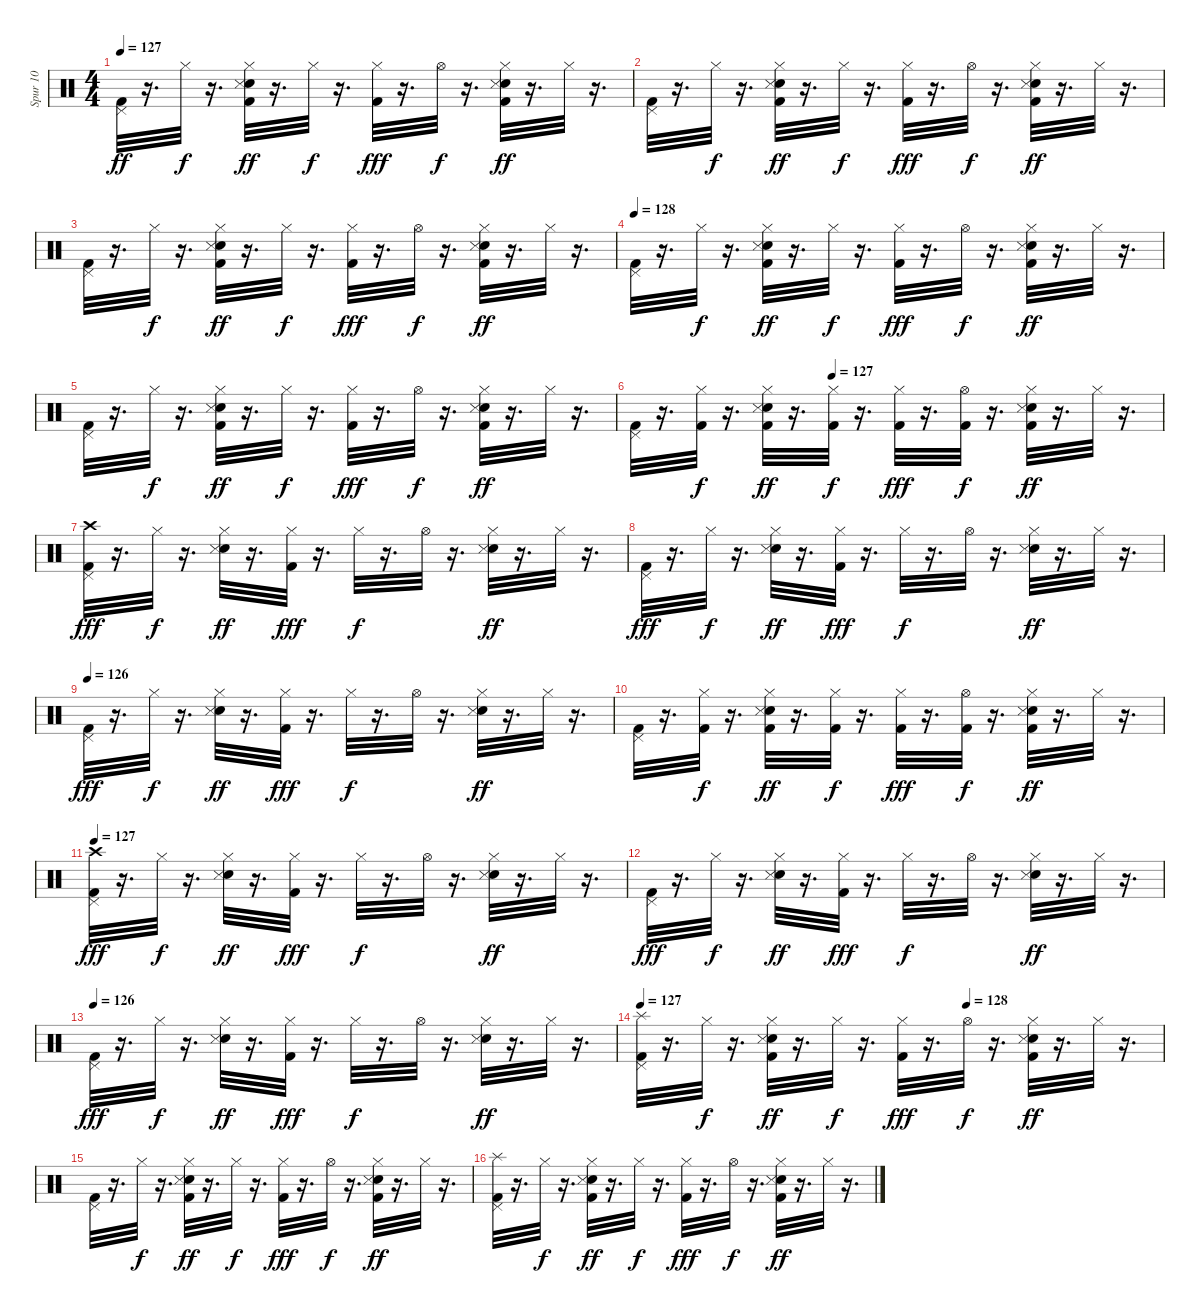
\track ("Spur 10" "Spur 10") {instrument percussion}
\staff {score}
\articulation defaults
\ts (4 4)
\tempo 127
\clef neutral
\ks c
("Kick (hit) 2" "Pedal Hi-Hat (hit)").32{dy ff} r.16{d} "Hi-Hat (closed)".32{dy f} r.16{d} ("Snare (hit) 2" "Kick (hit) 2" "Hi-Hat (closed)" "Snare (side stick) 3").32{dy ff} r.16{d} "Hi-Hat (closed)".32{dy f} r.16{d} ("Kick (hit) 2" "Hi-Hat (closed)").32{dy fff} r.16{d} "Hi-Hat (open)".32{dy f} r.16{d} ("Snare (hit) 2" "Kick (hit) 2" "Hi-Hat (closed)" "Snare (side stick) 3").32{dy ff} r.16{d} "Hi-Hat (closed)".32 r.16{d} |
("Kick (hit) 2" "Pedal Hi-Hat (hit)").32 r.16{d} "Hi-Hat (closed)".32{dy f} r.16{d} ("Snare (hit) 2" "Kick (hit) 2" "Hi-Hat (closed)" "Snare (side stick) 3").32{dy ff} r.16{d} "Hi-Hat (closed)".32{dy f} r.16{d} ("Kick (hit) 2" "Hi-Hat (closed)").32{dy fff} r.16{d} "Hi-Hat (open)".32{dy f} r.16{d} ("Snare (hit) 2" "Kick (hit) 2" "Hi-Hat (closed)" "Snare (side stick) 3").32{dy ff} r.16{d} "Hi-Hat (closed)".32 r.16{d} |
("Kick (hit) 2" "Pedal Hi-Hat (hit)").32 r.16{d} "Hi-Hat (closed)".32{dy f} r.16{d} ("Snare (hit) 2" "Kick (hit) 2" "Hi-Hat (closed)" "Snare (side stick) 3").32{dy ff} r.16{d} "Hi-Hat (closed)".32{dy f} r.16{d} ("Kick (hit) 2" "Hi-Hat (closed)").32{dy fff} r.16{d} "Hi-Hat (open)".32{dy f} r.16{d} ("Snare (hit) 2" "Kick (hit) 2" "Hi-Hat (closed)" "Snare (side stick) 3").32{dy ff} r.16{d} "Hi-Hat (closed)".32 r.16{d} |
\tempo 128
("Kick (hit) 2" "Pedal Hi-Hat (hit)").32 r.16{d} "Hi-Hat (closed)".32{dy f} r.16{d} ("Snare (hit) 2" "Kick (hit) 2" "Hi-Hat (closed)" "Snare (side stick) 3").32{dy ff} r.16{d} "Hi-Hat (closed)".32{dy f} r.16{d} ("Kick (hit) 2" "Hi-Hat (closed)").32{dy fff} r.16{d} "Hi-Hat (open)".32{dy f} r.16{d} ("Snare (hit) 2" "Kick (hit) 2" "Hi-Hat (closed)" "Snare (side stick) 3").32{dy ff} r.16{d} "Hi-Hat (closed)".32 r.16{d} |
("Kick (hit) 2" "Pedal Hi-Hat (hit)").32 r.16{d} "Hi-Hat (closed)".32{dy f} r.16{d} ("Snare (hit) 2" "Kick (hit) 2" "Hi-Hat (closed)" "Snare (side stick) 3").32{dy ff} r.16{d} "Hi-Hat (closed)".32{dy f} r.16{d} ("Kick (hit) 2" "Hi-Hat (closed)").32{dy fff} r.16{d} "Hi-Hat (open)".32{dy f} r.16{d} ("Snare (hit) 2" "Kick (hit) 2" "Hi-Hat (closed)" "Snare (side stick) 3").32{dy ff} r.16{d} "Hi-Hat (closed)".32 r.16{d} |
\tempo (127 0.375)
("Kick (hit) 2" "Pedal Hi-Hat (hit)").32 r.16{d} ("Kick (hit) 2" "Hi-Hat (closed)").32{dy f} r.16{d} ("Snare (hit) 2" "Kick (hit) 2" "Hi-Hat (closed)" "Snare (side stick) 3").32{dy ff} r.16{d} ("Kick (hit) 2" "Hi-Hat (closed)").32{dy f} r.16{d} ("Kick (hit) 2" "Hi-Hat (closed)").32{dy fff} r.16{d} ("Kick (hit) 2" "Hi-Hat (open)").32{dy f} r.16{d} ("Snare (hit) 2" "Kick (hit) 2" "Hi-Hat (closed)" "Snare (side stick) 3").32{dy ff} r.16{d} "Hi-Hat (closed)".32 r.16{d} |
("Crash high (hit)" "Pedal Hi-Hat (hit)" "Kick (hit) 2").32{dy fff} r.16{d} "Hi-Hat (closed)".32{dy f} r.16{d} ("Snare (hit) 2" "Hi-Hat (closed)" "Snare (side stick) 3").32{dy ff} r.16{d} ("Hi-Hat (closed)" "Kick (hit) 2").32{dy fff} r.16{d} "Hi-Hat (closed)".32{dy f} r.16{d} "Hi-Hat (open)".32 r.16{d} ("Snare (hit) 2" "Hi-Hat (closed)" "Snare (side stick) 3").32{dy ff} r.16{d} "Hi-Hat (closed)".32 r.16{d} |
("Pedal Hi-Hat (hit)" "Kick (hit) 2").32{dy fff} r.16{d} "Hi-Hat (closed)".32{dy f} r.16{d} ("Snare (hit) 2" "Hi-Hat (closed)" "Snare (side stick) 3").32{dy ff} r.16{d} ("Hi-Hat (closed)" "Kick (hit) 2").32{dy fff} r.16{d} "Hi-Hat (closed)".32{dy f} r.16{d} "Hi-Hat (open)".32 r.16{d} ("Snare (hit) 2" "Hi-Hat (closed)" "Snare (side stick) 3").32{dy ff} r.16{d} "Hi-Hat (closed)".32 r.16{d} |
\tempo 126
("Pedal Hi-Hat (hit)" "Kick (hit) 2").32{dy fff} r.16{d} "Hi-Hat (closed)".32{dy f} r.16{d} ("Snare (hit) 2" "Hi-Hat (closed)" "Snare (side stick) 3").32{dy ff} r.16{d} ("Hi-Hat (closed)" "Kick (hit) 2").32{dy fff} r.16{d} "Hi-Hat (closed)".32{dy f} r.16{d} "Hi-Hat (open)".32 r.16{d} ("Snare (hit) 2" "Hi-Hat (closed)" "Snare (side stick) 3").32{dy ff} r.16{d} "Hi-Hat (closed)".32 r.16{d} |
("Kick (hit) 2" "Pedal Hi-Hat (hit)").32 r.16{d} ("Kick (hit) 2" "Hi-Hat (closed)").32{dy f} r.16{d} ("Snare (hit) 2" "Kick (hit) 2" "Hi-Hat (closed)" "Snare (side stick) 3").32{dy ff} r.16{d} ("Kick (hit) 2" "Hi-Hat (closed)").32{dy f} r.16{d} ("Kick (hit) 2" "Hi-Hat (closed)").32{dy fff} r.16{d} ("Kick (hit) 2" "Hi-Hat (open)").32{dy f} r.16{d} ("Snare (hit) 2" "Kick (hit) 2" "Hi-Hat (closed)" "Snare (side stick) 3").32{dy ff} r.16{d} "Hi-Hat (closed)".32 r.16{d} |
\tempo 127
("Crash high (hit)" "Pedal Hi-Hat (hit)" "Kick (hit) 2").32{dy fff} r.16{d} "Hi-Hat (closed)".32{dy f} r.16{d} ("Snare (hit) 2" "Hi-Hat (closed)" "Snare (side stick) 3").32{dy ff} r.16{d} ("Hi-Hat (closed)" "Kick (hit) 2").32{dy fff} r.16{d} "Hi-Hat (closed)".32{dy f} r.16{d} "Hi-Hat (open)".32 r.16{d} ("Snare (hit) 2" "Hi-Hat (closed)" "Snare (side stick) 3").32{dy ff} r.16{d} "Hi-Hat (closed)".32 r.16{d} |
("Pedal Hi-Hat (hit)" "Kick (hit) 2").32{dy fff} r.16{d} "Hi-Hat (closed)".32{dy f} r.16{d} ("Snare (hit) 2" "Hi-Hat (closed)" "Snare (side stick) 3").32{dy ff} r.16{d} ("Hi-Hat (closed)" "Kick (hit) 2").32{dy fff} r.16{d} "Hi-Hat (closed)".32{dy f} r.16{d} "Hi-Hat (open)".32 r.16{d} ("Snare (hit) 2" "Hi-Hat (closed)" "Snare (side stick) 3").32{dy ff} r.16{d} "Hi-Hat (closed)".32 r.16{d} |
\tempo 126
("Pedal Hi-Hat (hit)" "Kick (hit) 2").32{dy fff} r.16{d} "Hi-Hat (closed)".32{dy f} r.16{d} ("Snare (hit) 2" "Hi-Hat (closed)" "Snare (side stick) 3").32{dy ff} r.16{d} ("Hi-Hat (closed)" "Kick (hit) 2").32{dy fff} r.16{d} "Hi-Hat (closed)".32{dy f} r.16{d} "Hi-Hat (open)".32 r.16{d} ("Snare (hit) 2" "Hi-Hat (closed)" "Snare (side stick) 3").32{dy ff} r.16{d} "Hi-Hat (closed)".32 r.16{d} |
\tempo 127
\tempo (128 0.625)
("Splash (hit)" "Kick (hit) 2" "Pedal Hi-Hat (hit)").32 r.16{d} "Hi-Hat (closed)".32{dy f} r.16{d} ("Snare (hit) 2" "Kick (hit) 2" "Hi-Hat (closed)" "Snare (side stick) 3").32{dy ff} r.16{d} "Hi-Hat (closed)".32{dy f} r.16{d} ("Kick (hit) 2" "Hi-Hat (closed)").32{dy fff} r.16{d} "Hi-Hat (open)".32{dy f} r.16{d} ("Snare (hit) 2" "Kick (hit) 2" "Hi-Hat (closed)" "Snare (side stick) 3").32{dy ff} r.16{d} "Hi-Hat (closed)".32 r.16{d} |
("Kick (hit) 2" "Pedal Hi-Hat (hit)").32 r.16{d} "Hi-Hat (closed)".32{dy f} r.16{d} ("Snare (hit) 2" "Kick (hit) 2" "Hi-Hat (closed)" "Snare (side stick) 3").32{dy ff} r.16{d} "Hi-Hat (closed)".32{dy f} r.16{d} ("Kick (hit) 2" "Hi-Hat (closed)").32{dy fff} r.16{d} "Hi-Hat (open)".32{dy f} r.16{d} ("Snare (hit) 2" "Kick (hit) 2" "Hi-Hat (closed)" "Snare (side stick) 3").32{dy ff} r.16{d} "Hi-Hat (closed)".32 r.16{d} |
("Splash (hit)" "Kick (hit) 2" "Pedal Hi-Hat (hit)").32 r.16{d} "Hi-Hat (closed)".32{dy f} r.16{d} ("Snare (hit) 2" "Kick (hit) 2" "Hi-Hat (closed)" "Snare (side stick) 3").32{dy ff} r.16{d} "Hi-Hat (closed)".32{dy f} r.16{d} ("Kick (hit) 2" "Hi-Hat (closed)").32{dy fff} r.16{d} "Hi-Hat (open)".32{dy f} r.16{d} ("Snare (hit) 2" "Kick (hit) 2" "Hi-Hat (closed)" "Snare (side stick) 3").32{dy ff} r.16{d} "Hi-Hat (closed)".32 r.16{d}
